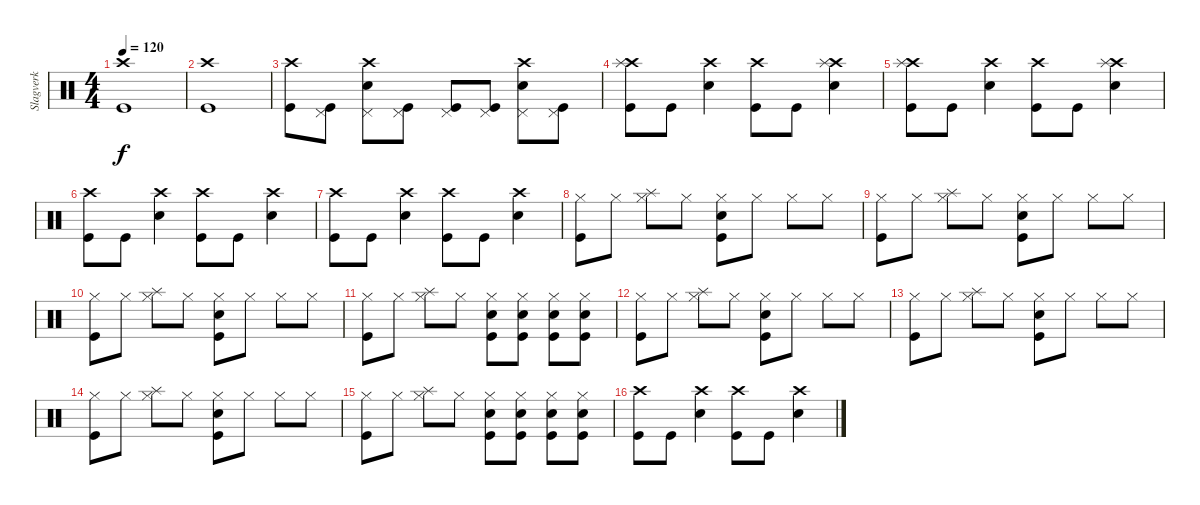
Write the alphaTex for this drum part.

\track ("Slagverk" "Slagverk") {instrument percussion}
\staff {score}
\articulation defaults
\ts (4 4)
\tempo 120
\clef neutral
\ks c
("Crash high (hit)" "Kick (hit)").1{dy f} |
("Crash high (hit)" "Kick (hit)").1 |
("Crash high (hit)" "Kick (hit)").8 ("Pedal Hi-Hat (hit)" "Kick (hit)").8 ("Pedal Hi-Hat (hit)" "Crash high (hit)" "Snare (hit) 2").8 ("Pedal Hi-Hat (hit)" "Kick (hit)").8 ("Pedal Hi-Hat (hit)" "Kick (hit)").8 ("Pedal Hi-Hat (hit)" "Kick (hit)").8 ("Pedal Hi-Hat (hit)" "Crash high (hit)" "Snare (hit) 2").8 ("Pedal Hi-Hat (hit)" "Kick (hit)").8 |
("Crash high (hit)" "Splash (hit)" "Kick (hit)").8 "Kick (hit)".8 ("Crash high (hit)" "Snare (hit) 2").4 ("Crash high (hit)" "Kick (hit)").8 "Kick (hit)".8 ("Crash high (hit)" "Splash (hit)" "Snare (hit) 2").4 |
("Crash high (hit)" "Splash (hit)" "Kick (hit)").8 "Kick (hit)".8 ("Crash high (hit)" "Snare (hit) 2").4 ("Crash high (hit)" "Kick (hit)").8 "Kick (hit)".8 ("Crash high (hit)" "Splash (hit)" "Snare (hit) 2").4 |
("Crash high (hit)" "Kick (hit)").8 "Kick (hit)".8 ("Crash high (hit)" "Snare (hit) 2").4 ("Crash high (hit)" "Kick (hit)").8 "Kick (hit)".8 ("Crash high (hit)" "Snare (hit) 2").4 |
("Crash high (hit)" "Kick (hit)").8 "Kick (hit)".8 ("Crash high (hit)" "Snare (hit) 2").4 ("Crash high (hit)" "Kick (hit)").8 "Kick (hit)".8 ("Crash high (hit)" "Snare (hit) 2").4 |
("Hi-Hat (closed)" "Kick (hit)").8 "Hi-Hat (closed)".8 ("Hi-Hat (closed)" "Splash (hit)").8 "Hi-Hat (closed)".8 ("Hi-Hat (closed)" "Snare (hit) 2" "Kick (hit)").8 "Hi-Hat (closed)".8 "Hi-Hat (closed)".8 "Hi-Hat (closed)".8 |
("Hi-Hat (closed)" "Kick (hit)").8 "Hi-Hat (closed)".8 ("Hi-Hat (closed)" "Splash (hit)").8 "Hi-Hat (closed)".8 ("Hi-Hat (closed)" "Snare (hit) 2" "Kick (hit)").8 "Hi-Hat (closed)".8 "Hi-Hat (closed)".8 "Hi-Hat (closed)".8 |
("Hi-Hat (closed)" "Kick (hit)").8 "Hi-Hat (closed)".8 ("Hi-Hat (closed)" "Splash (hit)").8 "Hi-Hat (closed)".8 ("Hi-Hat (closed)" "Snare (hit) 2" "Kick (hit)").8 "Hi-Hat (closed)".8 "Hi-Hat (closed)".8 "Hi-Hat (closed)".8 |
("Hi-Hat (closed)" "Kick (hit)").8 "Hi-Hat (closed)".8 ("Hi-Hat (closed)" "Splash (hit)").8 "Hi-Hat (closed)".8 ("Hi-Hat (closed)" "Snare (hit) 2" "Kick (hit)").8 ("Hi-Hat (closed)" "Snare (hit) 2" "Kick (hit)").8 ("Hi-Hat (closed)" "Snare (hit) 2" "Kick (hit)").8 ("Hi-Hat (closed)" "Snare (hit) 2" "Kick (hit)").8 |
("Hi-Hat (closed)" "Kick (hit)").8 "Hi-Hat (closed)".8 ("Hi-Hat (closed)" "Splash (hit)").8 "Hi-Hat (closed)".8 ("Hi-Hat (closed)" "Snare (hit) 2" "Kick (hit)").8 "Hi-Hat (closed)".8 "Hi-Hat (closed)".8 "Hi-Hat (closed)".8 |
("Hi-Hat (closed)" "Kick (hit)").8 "Hi-Hat (closed)".8 ("Hi-Hat (closed)" "Splash (hit)").8 "Hi-Hat (closed)".8 ("Hi-Hat (closed)" "Snare (hit) 2" "Kick (hit)").8 "Hi-Hat (closed)".8 "Hi-Hat (closed)".8 "Hi-Hat (closed)".8 |
("Hi-Hat (closed)" "Kick (hit)").8 "Hi-Hat (closed)".8 ("Hi-Hat (closed)" "Splash (hit)").8 "Hi-Hat (closed)".8 ("Hi-Hat (closed)" "Snare (hit) 2" "Kick (hit)").8 "Hi-Hat (closed)".8 "Hi-Hat (closed)".8 "Hi-Hat (closed)".8 |
("Hi-Hat (closed)" "Kick (hit)").8 "Hi-Hat (closed)".8 ("Hi-Hat (closed)" "Splash (hit)").8 "Hi-Hat (closed)".8 ("Hi-Hat (closed)" "Snare (hit) 2" "Kick (hit)").8 ("Hi-Hat (closed)" "Snare (hit) 2" "Kick (hit)").8 ("Hi-Hat (closed)" "Snare (hit) 2" "Kick (hit)").8 ("Hi-Hat (closed)" "Snare (hit) 2" "Kick (hit)").8 |
("Crash high (hit)" "Kick (hit)").8 "Kick (hit)".8 ("Crash high (hit)" "Snare (hit) 2").4 ("Crash high (hit)" "Kick (hit)").8 "Kick (hit)".8 ("Crash high (hit)" "Snare (hit) 2").4
